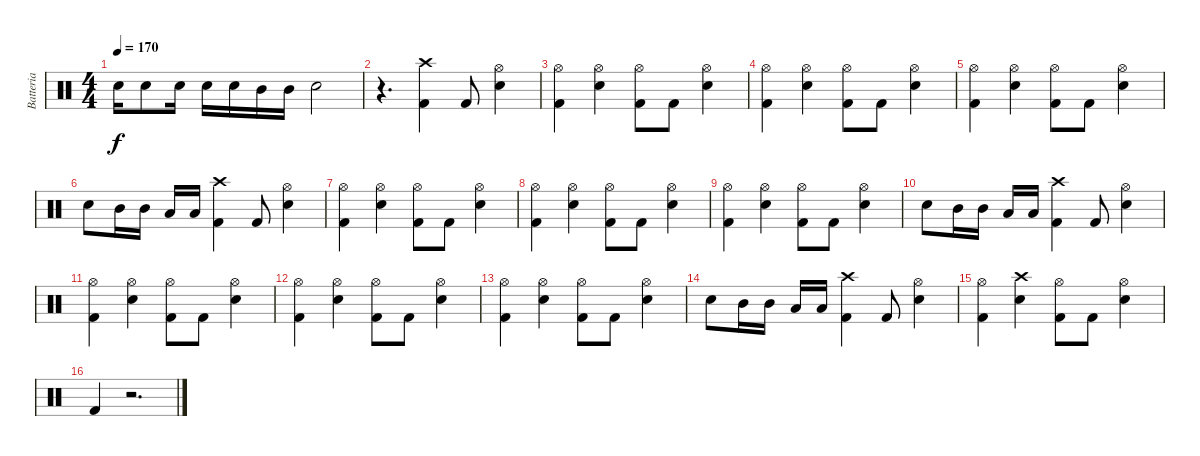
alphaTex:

\track ("Batteria" "Batteria") {instrument percussion}
\staff {score}
\articulation defaults
\ts (4 4)
\tempo 170
\clef neutral
\ks c "Snare (hit) 2".16{dy f} "Snare (hit) 2".8 "Snare (hit) 2".16 "Snare (hit) 2".16 "Snare (hit) 2".16 "Mid Tom (hit)".16 "Mid Tom (hit)".16 "Snare (hit) 2".2
|
r.4{d} ("Crash high (hit)" "Kick (hit) 2").4 "Kick (hit) 2".8 ("Hi-Hat (open)" "Snare (hit) 2").4 |
("Hi-Hat (open)" "Kick (hit) 2").4 ("Hi-Hat (open)" "Snare (hit) 2").4 ("Hi-Hat (open)" "Kick (hit) 2").8 "Kick (hit) 2".8 ("Hi-Hat (open)" "Snare (hit) 2").4 |
("Hi-Hat (open)" "Kick (hit) 2").4 ("Hi-Hat (open)" "Snare (hit) 2").4 ("Hi-Hat (open)" "Kick (hit) 2").8 "Kick (hit) 2".8 ("Hi-Hat (open)" "Snare (hit) 2").4 |
("Hi-Hat (open)" "Kick (hit) 2").4 ("Hi-Hat (open)" "Snare (hit) 2").4 ("Hi-Hat (open)" "Kick (hit) 2").8 "Kick (hit) 2".8 ("Hi-Hat (open)" "Snare (hit) 2").4 |
"Snare (hit) 2".8 "Mid Tom (hit)".16 "Mid Tom (hit)".16 "Low Tom (hit)".16 "Low Tom (hit)".16 ("Crash high (hit)" "Kick (hit) 2").4 "Kick (hit) 2".8 ("Hi-Hat (open)" "Snare (hit) 2").4 |
("Hi-Hat (open)" "Kick (hit) 2").4 ("Hi-Hat (open)" "Snare (hit) 2").4 ("Hi-Hat (open)" "Kick (hit) 2").8 "Kick (hit) 2".8 ("Hi-Hat (open)" "Snare (hit) 2").4 |
("Hi-Hat (open)" "Kick (hit) 2").4 ("Hi-Hat (open)" "Snare (hit) 2").4 ("Hi-Hat (open)" "Kick (hit) 2").8 "Kick (hit) 2".8 ("Hi-Hat (open)" "Snare (hit) 2").4 |
("Hi-Hat (open)" "Kick (hit) 2").4 ("Hi-Hat (open)" "Snare (hit) 2").4 ("Hi-Hat (open)" "Kick (hit) 2").8 "Kick (hit) 2".8 ("Hi-Hat (open)" "Snare (hit) 2").4 |
"Snare (hit) 2".8 "Mid Tom (hit)".16 "Mid Tom (hit)".16 "Low Tom (hit)".16 "Low Tom (hit)".16 ("Crash high (hit)" "Kick (hit) 2").4 "Kick (hit) 2".8 ("Hi-Hat (open)" "Snare (hit) 2").4 |
("Hi-Hat (open)" "Kick (hit) 2").4 ("Hi-Hat (open)" "Snare (hit) 2").4 ("Hi-Hat (open)" "Kick (hit) 2").8 "Kick (hit) 2".8 ("Hi-Hat (open)" "Snare (hit) 2").4 |
("Hi-Hat (open)" "Kick (hit) 2").4 ("Hi-Hat (open)" "Snare (hit) 2").4 ("Hi-Hat (open)" "Kick (hit) 2").8 "Kick (hit) 2".8 ("Hi-Hat (open)" "Snare (hit) 2").4 |
("Hi-Hat (open)" "Kick (hit) 2").4 ("Hi-Hat (open)" "Snare (hit) 2").4 ("Hi-Hat (open)" "Kick (hit) 2").8 "Kick (hit) 2".8 ("Hi-Hat (open)" "Snare (hit) 2").4 |
"Snare (hit) 2".8 "Mid Tom (hit)".16 "Mid Tom (hit)".16 "Low Tom (hit)".16 "Low Tom (hit)".16 ("Crash high (hit)" "Kick (hit) 2").4 "Kick (hit) 2".8 ("Hi-Hat (open)" "Snare (hit) 2").4 |
("Hi-Hat (open)" "Kick (hit) 2").4 ("Crash high (hit)" "Snare (hit) 2").4 ("Hi-Hat (open)" "Kick (hit) 2").8 "Kick (hit) 2".8 ("Hi-Hat (open)" "Snare (hit) 2").4 |
"Kick (hit) 2".4 r.2{d}
